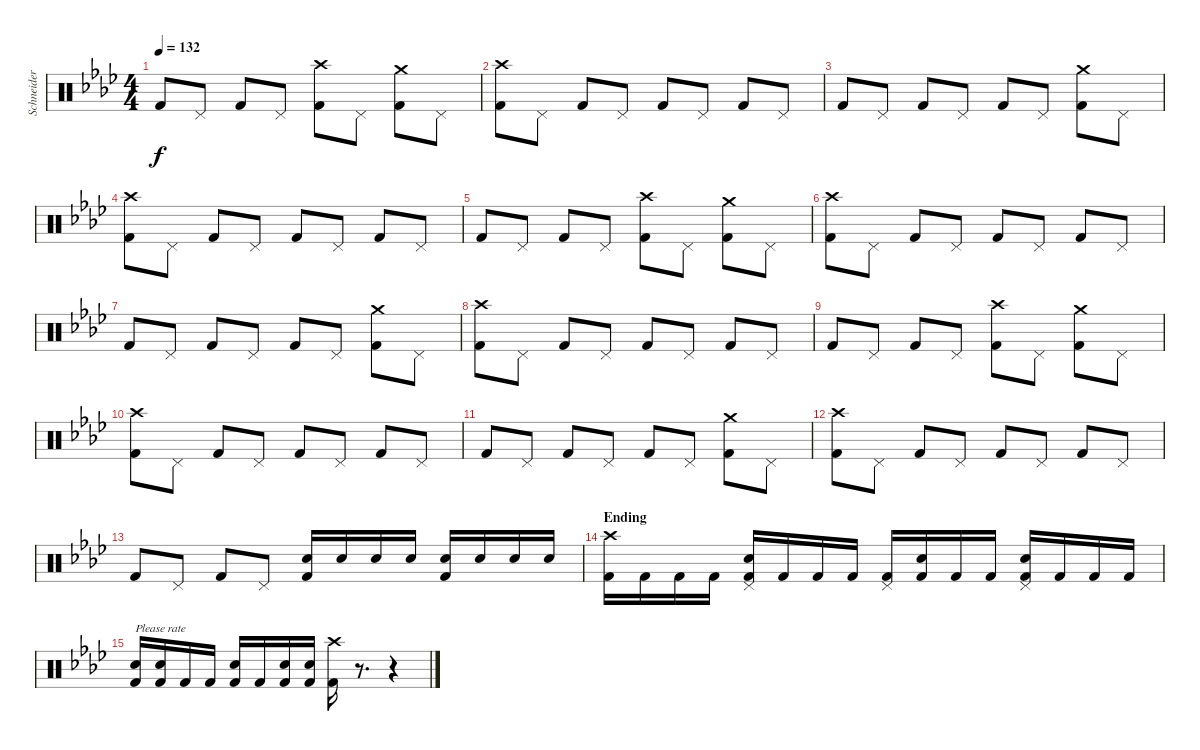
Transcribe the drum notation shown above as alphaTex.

\track ("Schneider" "Schneider") {instrument percussion}
\staff {score}
\articulation defaults
\ts (4 4)
\tempo 132
\clef neutral
\ks fminor "Kick (hit) 2".8{dy f} "Pedal Hi-Hat (hit)".8 "Kick (hit) 2".8 "Pedal Hi-Hat (hit)".8
("Crash high (hit)" "Kick (hit) 2").8 "Pedal Hi-Hat (hit)".8 ("Crash medium (hit)" "Kick (hit) 2").8 "Pedal Hi-Hat (hit)".8 |
("Crash high (hit)" "Kick (hit) 2").8 "Pedal Hi-Hat (hit)".8 "Kick (hit) 2".8 "Pedal Hi-Hat (hit)".8 "Kick (hit) 2".8 "Pedal Hi-Hat (hit)".8 "Kick (hit) 2".8 "Pedal Hi-Hat (hit)".8 |
"Kick (hit) 2".8 "Pedal Hi-Hat (hit)".8 "Kick (hit) 2".8 "Pedal Hi-Hat (hit)".8 "Kick (hit) 2".8 "Pedal Hi-Hat (hit)".8 ("Crash medium (hit)" "Kick (hit) 2").8 "Pedal Hi-Hat (hit)".8 |
("Crash high (hit)" "Kick (hit) 2").8 "Pedal Hi-Hat (hit)".8 "Kick (hit) 2".8 "Pedal Hi-Hat (hit)".8 "Kick (hit) 2".8 "Pedal Hi-Hat (hit)".8 "Kick (hit) 2".8 "Pedal Hi-Hat (hit)".8 |
"Kick (hit) 2".8 "Pedal Hi-Hat (hit)".8 "Kick (hit) 2".8 "Pedal Hi-Hat (hit)".8 ("Crash high (hit)" "Kick (hit) 2").8 "Pedal Hi-Hat (hit)".8 ("Crash medium (hit)" "Kick (hit) 2").8 "Pedal Hi-Hat (hit)".8 |
("Crash high (hit)" "Kick (hit) 2").8 "Pedal Hi-Hat (hit)".8 "Kick (hit) 2".8 "Pedal Hi-Hat (hit)".8 "Kick (hit) 2".8 "Pedal Hi-Hat (hit)".8 "Kick (hit) 2".8 "Pedal Hi-Hat (hit)".8 |
"Kick (hit) 2".8 "Pedal Hi-Hat (hit)".8 "Kick (hit) 2".8 "Pedal Hi-Hat (hit)".8 "Kick (hit) 2".8 "Pedal Hi-Hat (hit)".8 ("Crash medium (hit)" "Kick (hit) 2").8 "Pedal Hi-Hat (hit)".8 |
("Crash high (hit)" "Kick (hit) 2").8 "Pedal Hi-Hat (hit)".8 "Kick (hit) 2".8 "Pedal Hi-Hat (hit)".8 "Kick (hit) 2".8 "Pedal Hi-Hat (hit)".8 "Kick (hit) 2".8 "Pedal Hi-Hat (hit)".8 |
"Kick (hit) 2".8 "Pedal Hi-Hat (hit)".8 "Kick (hit) 2".8 "Pedal Hi-Hat (hit)".8 ("Crash high (hit)" "Kick (hit) 2").8 "Pedal Hi-Hat (hit)".8 ("Crash medium (hit)" "Kick (hit) 2").8 "Pedal Hi-Hat (hit)".8 |
("Crash high (hit)" "Kick (hit) 2").8 "Pedal Hi-Hat (hit)".8 "Kick (hit) 2".8 "Pedal Hi-Hat (hit)".8 "Kick (hit) 2".8 "Pedal Hi-Hat (hit)".8 "Kick (hit) 2".8 "Pedal Hi-Hat (hit)".8 |
"Kick (hit) 2".8 "Pedal Hi-Hat (hit)".8 "Kick (hit) 2".8 "Pedal Hi-Hat (hit)".8 "Kick (hit) 2".8 "Pedal Hi-Hat (hit)".8 ("Crash medium (hit)" "Kick (hit) 2").8 "Pedal Hi-Hat (hit)".8 |
("Crash high (hit)" "Kick (hit) 2").8 "Pedal Hi-Hat (hit)".8 "Kick (hit) 2".8 "Pedal Hi-Hat (hit)".8 "Kick (hit) 2".8 "Pedal Hi-Hat (hit)".8 "Kick (hit) 2".8 "Pedal Hi-Hat (hit)".8 |
"Kick (hit) 2".8 "Pedal Hi-Hat (hit)".8 "Kick (hit) 2".8 "Pedal Hi-Hat (hit)".8 ("Snare (hit) 2" "Kick (hit) 2").16 "Snare (hit) 2".16 "Snare (hit) 2".16 "Snare (hit) 2".16 ("Snare (hit) 2" "Kick (hit) 2").16 "Snare (hit) 2".16 "Snare (hit) 2".16 "Snare (hit) 2".16 |
\section ("" "Ending")
("Crash high (hit)" "Kick (hit) 2").16 "Kick (hit) 2".16 "Kick (hit) 2".16 "Kick (hit) 2".16 ("Pedal Hi-Hat (hit)" "Snare (hit) 2" "Kick (hit) 2").16 "Kick (hit) 2".16 "Kick (hit) 2".16 "Kick (hit) 2".16 ("Pedal Hi-Hat (hit)" "Kick (hit) 2").16 ("Snare (hit) 2" "Kick (hit) 2").16 "Kick (hit) 2".16 "Kick (hit) 2".16 ("Pedal Hi-Hat (hit)" "Snare (hit) 2" "Kick (hit) 2").16 "Kick (hit) 2".16 "Kick (hit) 2".16 "Kick (hit) 2".16 |
("Snare (hit) 2" "Kick (hit) 2").16{txt "Please rate"} ("Snare (hit) 2" "Kick (hit) 2").16 "Kick (hit) 2".16 "Kick (hit) 2".16 ("Snare (hit) 2" "Kick (hit) 2").16 "Kick (hit) 2".16 ("Snare (hit) 2" "Kick (hit) 2").16 ("Snare (hit) 2" "Kick (hit) 2").16 ("Crash high (hit)" "Kick (hit) 2").16 r.8{d} r.4
